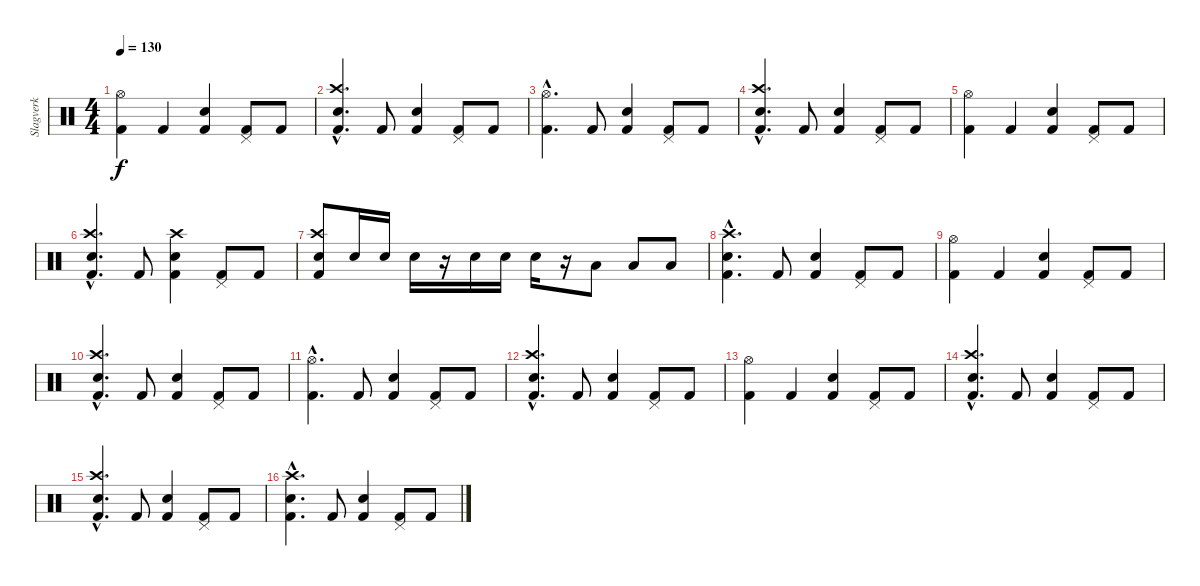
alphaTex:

\track ("Slagverk" "Slagverk") {instrument percussion}
\staff {score}
\articulation defaults
\ts (4 4)
\tempo 130
\clef neutral
\ks c
("Hi-Hat (open)" "Kick (hit) 2").4{dy f} "Kick (hit) 2".4 ("Electric Snare (hit)" "Kick (hit) 2").4 ("Pedal Hi-Hat (hit)" "Kick (hit) 2").8 "Kick (hit) 2".8 |
("Crash high (hit)"{hac} "Snare (hit) 2"{hac} "Kick (hit) 2"{hac}).4{d} "Kick (hit) 2".8 ("Electric Snare (hit)" "Kick (hit) 2").4 ("Pedal Hi-Hat (hit)" "Kick (hit) 2").8 "Kick (hit) 2".8 |
("Hi-Hat (open)"{hac} "Kick (hit) 2"{hac}).4{d} "Kick (hit) 2".8 ("Electric Snare (hit)" "Kick (hit) 2").4 ("Pedal Hi-Hat (hit)" "Kick (hit) 2").8 "Kick (hit) 2".8 |
("Crash high (hit)"{hac} "Snare (hit) 2"{hac} "Kick (hit) 2"{hac}).4{d} "Kick (hit) 2".8 ("Electric Snare (hit)" "Kick (hit) 2").4 ("Pedal Hi-Hat (hit)" "Kick (hit) 2").8 "Kick (hit) 2".8 |
("Hi-Hat (open)" "Kick (hit) 2").4 "Kick (hit) 2".4 ("Electric Snare (hit)" "Kick (hit) 2").4 ("Pedal Hi-Hat (hit)" "Kick (hit) 2").8 "Kick (hit) 2".8 |
("Crash high (hit)"{hac} "Snare (hit) 2"{hac} "Kick (hit) 2"{hac}).4{d} "Kick (hit) 2".8 ("Crash high (hit)" "Electric Snare (hit)" "Kick (hit) 2").4 ("Pedal Hi-Hat (hit)" "Kick (hit) 2").8 "Kick (hit) 2".8 |
("Crash high (hit)" "Snare (hit) 2" "Kick (hit) 2").8 "Electric Snare (hit)".16 "Electric Snare (hit)".16 "Electric Snare (hit)".16 r.16 "Snare (hit) 2".16 "Snare (hit) 2".16 "Snare (hit) 2".16 r.16 "Low Tom (hit)".8 "Low Tom (hit)".8 "Low Tom (hit)".8 |
("Crash high (hit)"{hac} "Electric Snare (hit)"{hac} "Kick (hit) 2"{hac}).4{d} "Kick (hit) 2".8 ("Electric Snare (hit)" "Kick (hit) 2").4 ("Pedal Hi-Hat (hit)" "Kick (hit) 2").8 "Kick (hit) 2".8 |
("Hi-Hat (open)" "Kick (hit) 2").4 "Kick (hit) 2".4 ("Electric Snare (hit)" "Kick (hit) 2").4 ("Pedal Hi-Hat (hit)" "Kick (hit) 2").8 "Kick (hit) 2".8 |
("Crash high (hit)"{hac} "Snare (hit) 2"{hac} "Kick (hit) 2"{hac}).4{d} "Kick (hit) 2".8 ("Electric Snare (hit)" "Kick (hit) 2").4 ("Pedal Hi-Hat (hit)" "Kick (hit) 2").8 "Kick (hit) 2".8 |
("Hi-Hat (open)"{hac} "Kick (hit) 2"{hac}).4{d} "Kick (hit) 2".8 ("Electric Snare (hit)" "Kick (hit) 2").4 ("Pedal Hi-Hat (hit)" "Kick (hit) 2").8 "Kick (hit) 2".8 |
("Crash high (hit)"{hac} "Snare (hit) 2"{hac} "Kick (hit) 2"{hac}).4{d} "Kick (hit) 2".8 ("Electric Snare (hit)" "Kick (hit) 2").4 ("Pedal Hi-Hat (hit)" "Kick (hit) 2").8 "Kick (hit) 2".8 |
("Hi-Hat (open)" "Kick (hit) 2").4 "Kick (hit) 2".4 ("Electric Snare (hit)" "Kick (hit) 2").4 ("Pedal Hi-Hat (hit)" "Kick (hit) 2").8 "Kick (hit) 2".8 |
("Crash high (hit)"{hac} "Snare (hit) 2"{hac} "Kick (hit) 2"{hac}).4{d} "Kick (hit) 2".8 ("Electric Snare (hit)" "Kick (hit) 2").4 ("Pedal Hi-Hat (hit)" "Kick (hit) 2").8 "Kick (hit) 2".8 |
("Crash high (hit)"{hac} "Snare (hit) 2"{hac} "Kick (hit) 2"{hac}).4{d} "Kick (hit) 2".8 ("Electric Snare (hit)" "Kick (hit) 2").4 ("Pedal Hi-Hat (hit)" "Kick (hit) 2").8 "Kick (hit) 2".8 |
("Crash high (hit)"{hac} "Electric Snare (hit)"{hac} "Kick (hit) 2"{hac}).4{d volume 5} "Kick (hit) 2".8 ("Electric Snare (hit)" "Kick (hit) 2").4 ("Pedal Hi-Hat (hit)" "Kick (hit) 2").8 "Kick (hit) 2".8
